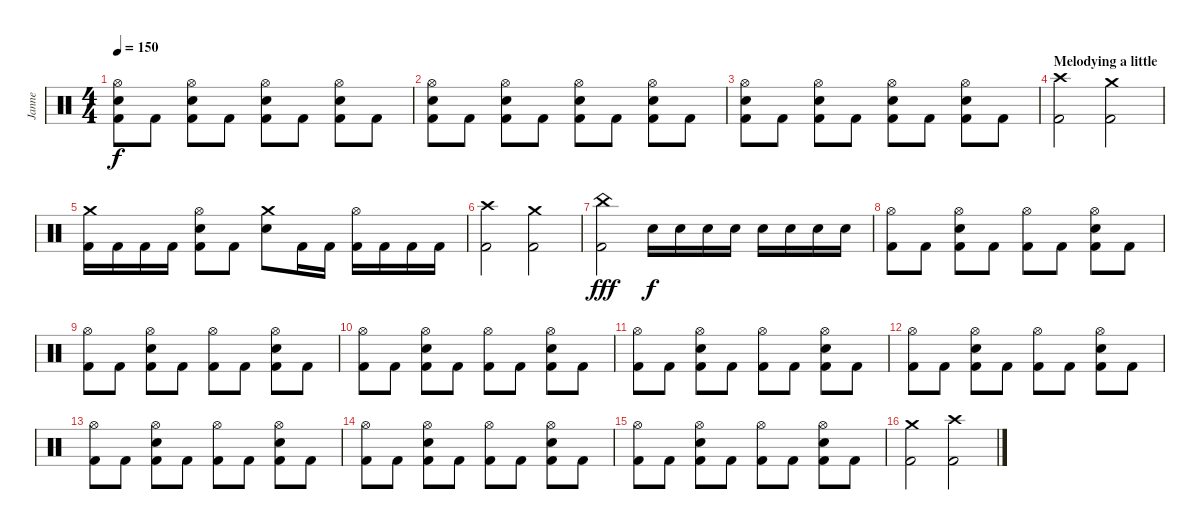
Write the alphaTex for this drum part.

\track ("Janne" "Janne") {instrument percussion}
\staff {score}
\articulation defaults
\ts (4 4)
\tempo 150
\clef neutral
\ks c
("Hi-Hat (open)" "Electric Snare (hit)" "Kick (hit) 2").8{dy f} "Kick (hit) 2".8 ("Hi-Hat (open)" "Electric Snare (hit)" "Kick (hit) 2").8 "Kick (hit) 2".8 ("Hi-Hat (open)" "Electric Snare (hit)" "Kick (hit) 2").8 "Kick (hit) 2".8 ("Hi-Hat (open)" "Electric Snare (hit)" "Kick (hit) 2").8 "Kick (hit) 2".8 |
("Hi-Hat (open)" "Electric Snare (hit)" "Kick (hit) 2").8 "Kick (hit) 2".8 ("Hi-Hat (open)" "Electric Snare (hit)" "Kick (hit) 2").8 "Kick (hit) 2".8 ("Hi-Hat (open)" "Electric Snare (hit)" "Kick (hit) 2").8 "Kick (hit) 2".8 ("Hi-Hat (open)" "Electric Snare (hit)" "Kick (hit) 2").8 "Kick (hit) 2".8 |
("Hi-Hat (open)" "Electric Snare (hit)" "Kick (hit) 2").8 "Kick (hit) 2".8 ("Hi-Hat (open)" "Electric Snare (hit)" "Kick (hit) 2").8 "Kick (hit) 2".8 ("Hi-Hat (open)" "Electric Snare (hit)" "Kick (hit) 2").8 "Kick (hit) 2".8 ("Hi-Hat (open)" "Electric Snare (hit)" "Kick (hit) 2").8 "Kick (hit) 2".8 |
\section ("" "Melodying a little")
("Crash high (hit)" "Kick (hit) 2").2 ("Crash medium (hit)" "Kick (hit) 2").2 |
("Crash medium (hit)" "Kick (hit) 2").16 "Kick (hit) 2".16 "Kick (hit) 2".16 "Kick (hit) 2".16 ("Hi-Hat (open)" "Electric Snare (hit)" "Kick (hit) 2").8 "Kick (hit) 2".8 ("Crash medium (hit)" "Electric Snare (hit)").8 "Kick (hit) 2".16 "Kick (hit) 2".16 ("Hi-Hat (open)" "Kick (hit) 2").16 "Kick (hit) 2".16 "Kick (hit) 2".16 "Kick (hit) 2".16 |
("Crash high (hit)" "Kick (hit) 2").2 ("Crash medium (hit)" "Kick (hit) 2").2 |
("China (hit)" "Kick (hit) 2").2{dy fff} "Electric Snare (hit)".16{dy f} "Electric Snare (hit)".16 "Electric Snare (hit)".16 "Electric Snare (hit)".16 "Electric Snare (hit)".16 "Electric Snare (hit)".16 "Electric Snare (hit)".16 "Electric Snare (hit)".16 |
("Hi-Hat (open)" "Kick (hit) 2").8 "Kick (hit) 2".8 ("Hi-Hat (open)" "Electric Snare (hit)" "Kick (hit) 2").8 "Kick (hit) 2".8 ("Hi-Hat (open)" "Kick (hit) 2").8 "Kick (hit) 2".8 ("Hi-Hat (open)" "Electric Snare (hit)" "Kick (hit) 2").8 "Kick (hit) 2".8 |
("Hi-Hat (open)" "Kick (hit) 2").8 "Kick (hit) 2".8 ("Hi-Hat (open)" "Electric Snare (hit)" "Kick (hit) 2").8 "Kick (hit) 2".8 ("Hi-Hat (open)" "Kick (hit) 2").8 "Kick (hit) 2".8 ("Hi-Hat (open)" "Electric Snare (hit)" "Kick (hit) 2").8 "Kick (hit) 2".8 |
("Hi-Hat (open)" "Kick (hit) 2").8 "Kick (hit) 2".8 ("Hi-Hat (open)" "Electric Snare (hit)" "Kick (hit) 2").8 "Kick (hit) 2".8 ("Hi-Hat (open)" "Kick (hit) 2").8 "Kick (hit) 2".8 ("Hi-Hat (open)" "Electric Snare (hit)" "Kick (hit) 2").8 "Kick (hit) 2".8 |
("Hi-Hat (open)" "Kick (hit) 2").8 "Kick (hit) 2".8 ("Hi-Hat (open)" "Electric Snare (hit)" "Kick (hit) 2").8 "Kick (hit) 2".8 ("Hi-Hat (open)" "Kick (hit) 2").8 "Kick (hit) 2".8 ("Hi-Hat (open)" "Electric Snare (hit)" "Kick (hit) 2").8 "Kick (hit) 2".8 |
("Hi-Hat (open)" "Kick (hit) 2").8 "Kick (hit) 2".8 ("Hi-Hat (open)" "Electric Snare (hit)" "Kick (hit) 2").8 "Kick (hit) 2".8 ("Hi-Hat (open)" "Kick (hit) 2").8 "Kick (hit) 2".8 ("Hi-Hat (open)" "Electric Snare (hit)" "Kick (hit) 2").8 "Kick (hit) 2".8 |
("Hi-Hat (open)" "Kick (hit) 2").8 "Kick (hit) 2".8 ("Hi-Hat (open)" "Electric Snare (hit)" "Kick (hit) 2").8 "Kick (hit) 2".8 ("Hi-Hat (open)" "Kick (hit) 2").8 "Kick (hit) 2".8 ("Hi-Hat (open)" "Electric Snare (hit)" "Kick (hit) 2").8 "Kick (hit) 2".8 |
("Hi-Hat (open)" "Kick (hit) 2").8 "Kick (hit) 2".8 ("Hi-Hat (open)" "Electric Snare (hit)" "Kick (hit) 2").8 "Kick (hit) 2".8 ("Hi-Hat (open)" "Kick (hit) 2").8 "Kick (hit) 2".8 ("Hi-Hat (open)" "Electric Snare (hit)" "Kick (hit) 2").8 "Kick (hit) 2".8 |
("Hi-Hat (open)" "Kick (hit) 2").8 "Kick (hit) 2".8 ("Hi-Hat (open)" "Electric Snare (hit)" "Kick (hit) 2").8 "Kick (hit) 2".8 ("Hi-Hat (open)" "Kick (hit) 2").8 "Kick (hit) 2".8 ("Hi-Hat (open)" "Electric Snare (hit)" "Kick (hit) 2").8 "Kick (hit) 2".8 |
("Crash medium (hit)" "Kick (hit) 2").2 ("Crash high (hit)" "Kick (hit) 2").2
